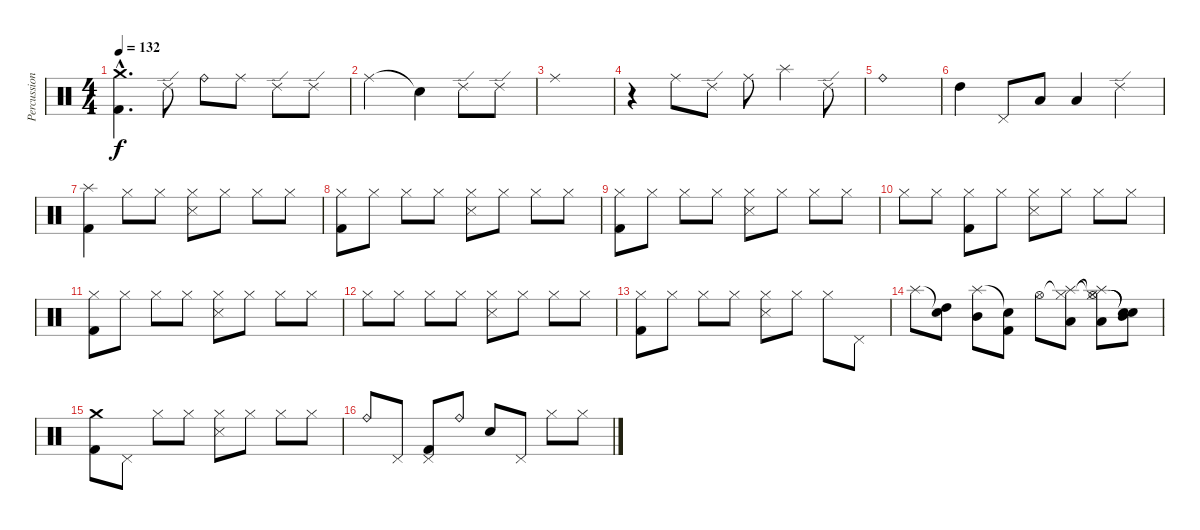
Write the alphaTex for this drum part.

\track ("Percussion" "Percussion") {instrument percussion}
\staff {score}
\articulation defaults
\ts (4 4)
\tempo 132
\clef neutral
\ks c
("Crash medium (hit)"{hac} "Kick (hit) 2"{hac}).4{d dy f} "Ride (edge) 2".8 "Ride (bell)".8 "Ride (middle)".8 "Ride (edge) 2".8 "Ride (edge) 2".8 |
"Ride (middle)".2 "Snare (hit)"{t}.4 "Ride (edge) 2".8 "Ride (edge) 2".8 |
"Ride (middle)".1 |
r.4 "Ride (middle)".8 "Ride (edge) 2".8 "Ride (middle)".8 "Splash (hit)".4 "Ride (edge) 2".8 |
"Ride (bell)".1 |
"High Tom (hit)".4 "Pedal Hi-Hat (hit)".8 "Low Tom (hit)".8 "Low Tom (hit)".4 "Ride (edge) 2".4 |
("Splash (hit)" "Kick (hit) 2").4 "Hi-Hat (closed)".8 "Hi-Hat (closed)".8 ("Hi-Hat (closed)" "Snare (side stick) 3").8 "Hi-Hat (closed)".8 "Hi-Hat (closed)".8 "Hi-Hat (closed)".8 |
("Hi-Hat (closed)" "Kick (hit) 2").8 "Hi-Hat (closed)".8 "Hi-Hat (closed)".8 "Hi-Hat (closed)".8 ("Hi-Hat (closed)" "Snare (side stick) 3").8 "Hi-Hat (closed)".8 "Hi-Hat (closed)".8 "Hi-Hat (closed)".8 |
("Hi-Hat (closed)" "Kick (hit) 2").8 "Hi-Hat (closed)".8 "Hi-Hat (closed)".8 "Hi-Hat (closed)".8 ("Hi-Hat (closed)" "Snare (side stick) 3").8 "Hi-Hat (closed)".8 "Hi-Hat (closed)".8 "Hi-Hat (closed)".8 |
"Hi-Hat (closed)".8 "Hi-Hat (closed)".8 ("Hi-Hat (closed)" "Kick (hit) 2").8 "Hi-Hat (closed)".8 ("Hi-Hat (closed)" "Snare (side stick) 3").8 "Hi-Hat (closed)".8 "Hi-Hat (closed)".8 "Hi-Hat (closed)".8 |
("Hi-Hat (closed)" "Kick (hit) 2").8 "Hi-Hat (closed)".8 "Hi-Hat (closed)".8 "Hi-Hat (closed)".8 ("Hi-Hat (closed)" "Snare (side stick) 3").8 "Hi-Hat (closed)".8 "Hi-Hat (closed)".8 "Hi-Hat (closed)".8 |
"Hi-Hat (closed)".8 "Hi-Hat (closed)".8 "Hi-Hat (closed)".8 "Hi-Hat (closed)".8 ("Hi-Hat (closed)" "Snare (side stick) 3").8 "Hi-Hat (closed)".8 "Hi-Hat (closed)".8 "Hi-Hat (closed)".8 |
("Hi-Hat (closed)" "Kick (hit) 2").8 "Hi-Hat (closed)".8 "Hi-Hat (closed)".8 "Hi-Hat (closed)".8 ("Hi-Hat (closed)" "Snare (side stick) 3").8 "Hi-Hat (closed)".8 "Hi-Hat (closed)".8 "Pedal Hi-Hat (hit)".8 |
"Splash (hit)".8 ("Snare (hit)"{t} "High Tom (hit)").8 ("Splash (hit)" "Mid Tom (hit)").8 ("Snare (hit)"{t} "Kick (hit) 2").8 "Hi-Hat (open)".8 ("Hi-Hat (closed)"{t} "Splash (hit)" "Low Tom (hit)").8 ("Hi-Hat (closed)"{t} "Hi-Hat (open)"{t} "Splash (hit)" "Low Tom (hit)").8 ("Snare (hit)"{t} "Snare (hit)"{t} "Mid Tom (hit)").8 |
("Crash medium (hit)" "Kick (hit) 2").8 "Pedal Hi-Hat (hit)".8 "Hi-Hat (closed)".8 "Hi-Hat (closed)".8 ("Hi-Hat (closed)" "Snare (side stick) 3").8 "Hi-Hat (closed)".8 "Hi-Hat (closed)".8 "Hi-Hat (closed)".8 |
"Ride (bell)".8 "Pedal Hi-Hat (hit)".8 ("Pedal Hi-Hat (hit)" "Kick (hit) 2").8 "Ride (bell)".8 "Snare (hit) 2".8 "Pedal Hi-Hat (hit)".8 "Hi-Hat (closed)".8 "Hi-Hat (closed)".8
